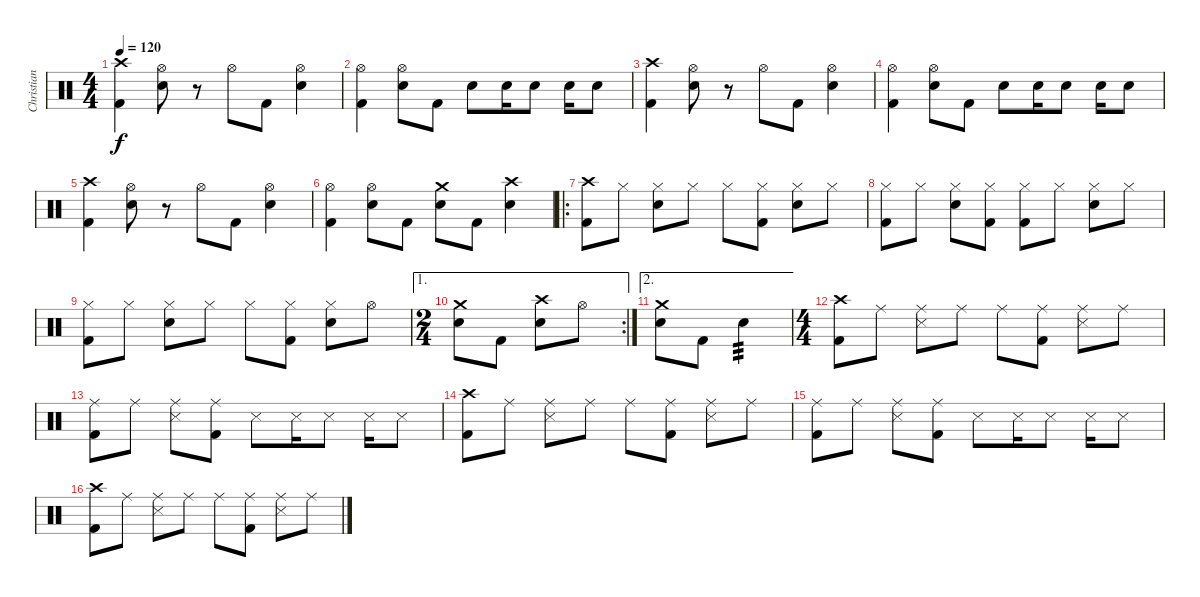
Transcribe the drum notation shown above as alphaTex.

\track ("Christian" "Christian") {instrument percussion}
\staff {score}
\articulation defaults
\ts (4 4)
\tempo 120
\clef neutral
\ks c
("Crash high (hit)" "Kick (hit) 2").4{dy f} ("Hi-Hat (open)" "Electric Snare (hit)").8 r.8 "Hi-Hat (open)".8 "Kick (hit) 2".8 ("Hi-Hat (open)" "Electric Snare (hit)").4 |
("Hi-Hat (open)" "Kick (hit) 2").4 ("Hi-Hat (open)" "Electric Snare (hit)").8 "Kick (hit) 2".8 "Electric Snare (hit)".8 "Electric Snare (hit)".16 "Electric Snare (hit)".8 "Electric Snare (hit)".16 "Electric Snare (hit)".8 |
("Crash high (hit)" "Kick (hit) 2").4 ("Hi-Hat (open)" "Electric Snare (hit)").8 r.8 "Hi-Hat (open)".8 "Kick (hit) 2".8 ("Hi-Hat (open)" "Electric Snare (hit)").4 |
("Hi-Hat (open)" "Kick (hit) 2").4 ("Hi-Hat (open)" "Electric Snare (hit)").8 "Kick (hit) 2".8 "Electric Snare (hit)".8 "Electric Snare (hit)".16 "Electric Snare (hit)".8 "Electric Snare (hit)".16 "Electric Snare (hit)".8 |
("Crash high (hit)" "Kick (hit) 2").4 ("Hi-Hat (open)" "Electric Snare (hit)").8 r.8 "Hi-Hat (open)".8 "Kick (hit) 2".8 ("Hi-Hat (open)" "Electric Snare (hit)").4 |
("Hi-Hat (open)" "Kick (hit) 2").4 ("Hi-Hat (open)" "Electric Snare (hit)").8 "Kick (hit) 2".8 ("Crash medium (hit)" "Electric Snare (hit)").8 "Kick (hit) 2".8 ("Crash high (hit)" "Electric Snare (hit)").4 |
\ro
("Crash high (hit)" "Kick (hit) 2").8 "Hi-Hat (closed)".8 ("Hi-Hat (closed)" "Electric Snare (hit)").8 "Hi-Hat (closed)".8 "Hi-Hat (closed)".8 ("Hi-Hat (closed)" "Kick (hit) 2").8 ("Hi-Hat (closed)" "Electric Snare (hit)").8 "Hi-Hat (closed)".8 |
("Hi-Hat (closed)" "Kick (hit) 2").8 "Hi-Hat (closed)".8 ("Hi-Hat (closed)" "Electric Snare (hit)").8 ("Hi-Hat (closed)" "Kick (hit) 2").8 ("Hi-Hat (closed)" "Kick (hit) 2").8 "Hi-Hat (closed)".8 ("Hi-Hat (closed)" "Electric Snare (hit)").8 "Hi-Hat (closed)".8 |
("Hi-Hat (closed)" "Kick (hit) 2").8 "Hi-Hat (closed)".8 ("Hi-Hat (closed)" "Electric Snare (hit)").8 "Hi-Hat (closed)".8 "Hi-Hat (closed)".8 ("Hi-Hat (closed)" "Kick (hit) 2").8 ("Hi-Hat (closed)" "Electric Snare (hit)").8 "Hi-Hat (open)".8 |
\ae 1
\rc 2
\ts (2 4)
("Crash medium (hit)" "Electric Snare (hit)").8 "Kick (hit) 2".8 ("Crash high (hit)" "Electric Snare (hit)").8 "Hi-Hat (open)".8 |
\ae 2
("Crash medium (hit)" "Electric Snare (hit)").8 "Kick (hit) 2".8 "Electric Snare (hit)".4{tp 3} |
\ts (4 4)
("Crash high (hit)" "Kick (hit) 2").8 "Ride (middle)".8 ("Ride (middle)" "Snare (side stick) 3").8 "Ride (middle)".8 "Ride (middle)".8 ("Ride (middle)" "Kick (hit) 2").8 ("Ride (middle)" "Snare (side stick) 3").8 "Ride (middle)".8 |
("Ride (middle)" "Kick (hit) 2").8 "Ride (middle)".8 ("Ride (middle)" "Snare (side stick) 3").8 ("Ride (middle)" "Kick (hit) 2").8 "Snare (side stick) 3".8 "Snare (side stick) 3".16 "Snare (side stick) 3".8 "Snare (side stick) 3".16 "Snare (side stick) 3".8 |
("Crash high (hit)" "Kick (hit) 2").8 "Ride (middle)".8 ("Ride (middle)" "Snare (side stick) 3").8 "Ride (middle)".8 "Ride (middle)".8 ("Ride (middle)" "Kick (hit) 2").8 ("Ride (middle)" "Snare (side stick) 3").8 "Ride (middle)".8 |
("Ride (middle)" "Kick (hit) 2").8 "Ride (middle)".8 ("Ride (middle)" "Snare (side stick) 3").8 ("Ride (middle)" "Kick (hit) 2").8 "Snare (side stick) 3".8 "Snare (side stick) 3".16 "Snare (side stick) 3".8 "Snare (side stick) 3".16 "Snare (side stick) 3".8 |
("Crash high (hit)" "Kick (hit) 2").8 "Ride (middle)".8 ("Ride (middle)" "Snare (side stick) 3").8 "Ride (middle)".8 "Ride (middle)".8 ("Ride (middle)" "Kick (hit) 2").8 ("Ride (middle)" "Snare (side stick) 3").8 "Ride (middle)".8
